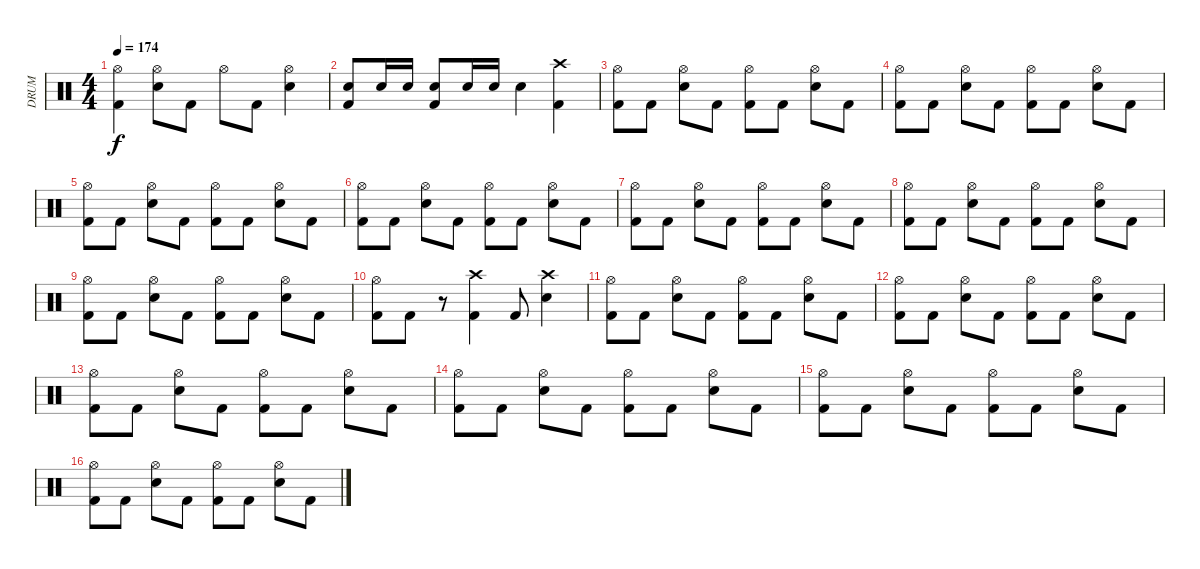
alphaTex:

\track ("DRUM" "DRUM") {instrument percussion}
\staff {score}
\articulation defaults
\ts (4 4)
\tempo 174
\clef neutral
\ks c
("Hi-Hat (open)" "Kick (hit) 2").4{dy f} ("Hi-Hat (open)" "Snare (hit) 2").8 "Kick (hit) 2".8 "Hi-Hat (open)".8 "Kick (hit) 2".8 ("Hi-Hat (open)" "Snare (hit) 2").4 |
("Snare (hit) 2" "Kick (hit) 2").8 "Snare (hit) 2".16 "Snare (hit) 2".16 ("Snare (hit) 2" "Kick (hit) 2").8 "Snare (hit) 2".16 "Snare (hit) 2".16 "Snare (hit) 2".4 ("Crash high (hit)" "Kick (hit) 2").4 |
("Hi-Hat (open)" "Kick (hit) 2").8 "Kick (hit) 2".8 ("Hi-Hat (open)" "Snare (hit) 2").8 "Kick (hit) 2".8 ("Hi-Hat (open)" "Kick (hit) 2").8 "Kick (hit) 2".8 ("Hi-Hat (open)" "Snare (hit) 2").8 "Kick (hit) 2".8 |
("Hi-Hat (open)" "Kick (hit) 2").8 "Kick (hit) 2".8 ("Hi-Hat (open)" "Snare (hit) 2").8 "Kick (hit) 2".8 ("Hi-Hat (open)" "Kick (hit) 2").8 "Kick (hit) 2".8 ("Hi-Hat (open)" "Snare (hit) 2").8 "Kick (hit) 2".8 |
("Hi-Hat (open)" "Kick (hit) 2").8 "Kick (hit) 2".8 ("Hi-Hat (open)" "Snare (hit) 2").8 "Kick (hit) 2".8 ("Hi-Hat (open)" "Kick (hit) 2").8 "Kick (hit) 2".8 ("Hi-Hat (open)" "Snare (hit) 2").8 "Kick (hit) 2".8 |
("Hi-Hat (open)" "Kick (hit) 2").8 "Kick (hit) 2".8 ("Hi-Hat (open)" "Snare (hit) 2").8 "Kick (hit) 2".8 ("Hi-Hat (open)" "Kick (hit) 2").8 "Kick (hit) 2".8 ("Hi-Hat (open)" "Snare (hit) 2").8 "Kick (hit) 2".8 |
("Hi-Hat (open)" "Kick (hit) 2").8 "Kick (hit) 2".8 ("Hi-Hat (open)" "Snare (hit) 2").8 "Kick (hit) 2".8 ("Hi-Hat (open)" "Kick (hit) 2").8 "Kick (hit) 2".8 ("Hi-Hat (open)" "Snare (hit) 2").8 "Kick (hit) 2".8 |
("Hi-Hat (open)" "Kick (hit) 2").8 "Kick (hit) 2".8 ("Hi-Hat (open)" "Snare (hit) 2").8 "Kick (hit) 2".8 ("Hi-Hat (open)" "Kick (hit) 2").8 "Kick (hit) 2".8 ("Hi-Hat (open)" "Snare (hit) 2").8 "Kick (hit) 2".8 |
("Hi-Hat (open)" "Kick (hit) 2").8 "Kick (hit) 2".8 ("Hi-Hat (open)" "Snare (hit) 2").8 "Kick (hit) 2".8 ("Hi-Hat (open)" "Kick (hit) 2").8 "Kick (hit) 2".8 ("Hi-Hat (open)" "Snare (hit) 2").8 "Kick (hit) 2".8 |
("Hi-Hat (open)" "Kick (hit) 2").8 "Kick (hit) 2".8 r.8 ("Crash high (hit)" "Kick (hit) 2").4 "Kick (hit) 2".8 ("Crash high (hit)" "Snare (hit) 2").4 |
("Hi-Hat (open)" "Kick (hit) 2").8 "Kick (hit) 2".8 ("Hi-Hat (open)" "Snare (hit) 2").8 "Kick (hit) 2".8 ("Hi-Hat (open)" "Kick (hit) 2").8 "Kick (hit) 2".8 ("Hi-Hat (open)" "Snare (hit) 2").8 "Kick (hit) 2".8 |
("Hi-Hat (open)" "Kick (hit) 2").8 "Kick (hit) 2".8 ("Hi-Hat (open)" "Snare (hit) 2").8 "Kick (hit) 2".8 ("Hi-Hat (open)" "Kick (hit) 2").8 "Kick (hit) 2".8 ("Hi-Hat (open)" "Snare (hit) 2").8 "Kick (hit) 2".8 |
("Hi-Hat (open)" "Kick (hit) 2").8 "Kick (hit) 2".8 ("Hi-Hat (open)" "Snare (hit) 2").8 "Kick (hit) 2".8 ("Hi-Hat (open)" "Kick (hit) 2").8 "Kick (hit) 2".8 ("Hi-Hat (open)" "Snare (hit) 2").8 "Kick (hit) 2".8 |
("Hi-Hat (open)" "Kick (hit) 2").8 "Kick (hit) 2".8 ("Hi-Hat (open)" "Snare (hit) 2").8 "Kick (hit) 2".8 ("Hi-Hat (open)" "Kick (hit) 2").8 "Kick (hit) 2".8 ("Hi-Hat (open)" "Snare (hit) 2").8 "Kick (hit) 2".8 |
("Hi-Hat (open)" "Kick (hit) 2").8 "Kick (hit) 2".8 ("Hi-Hat (open)" "Snare (hit) 2").8 "Kick (hit) 2".8 ("Hi-Hat (open)" "Kick (hit) 2").8 "Kick (hit) 2".8 ("Hi-Hat (open)" "Snare (hit) 2").8 "Kick (hit) 2".8 |
("Hi-Hat (open)" "Kick (hit) 2").8 "Kick (hit) 2".8 ("Hi-Hat (open)" "Snare (hit) 2").8 "Kick (hit) 2".8 ("Hi-Hat (open)" "Kick (hit) 2").8 "Kick (hit) 2".8 ("Hi-Hat (open)" "Snare (hit) 2").8 "Kick (hit) 2".8
